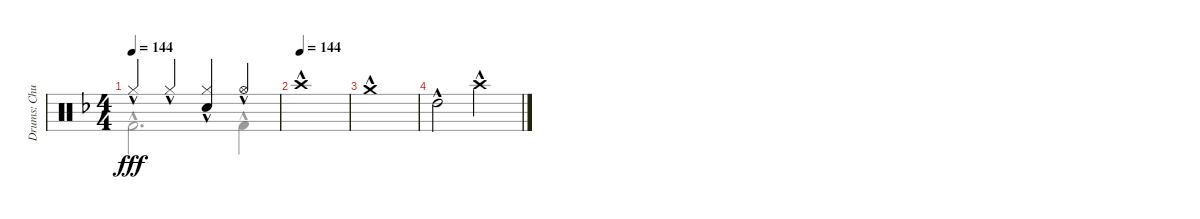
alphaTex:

\track ("Drums: Chuck" "Drums: Chu") {instrument percussion}
\staff {score}
\articulation defaults
\voice
\ts (4 4)
\tempo 144
\clef neutral
\ks f "Hi-Hat (closed)"{hac}.4{dy fff} "Hi-Hat (closed)"{hac}.4
("Hi-Hat (closed)"{hac} "Snare (hit) 2"{hac}).4 "Hi-Hat (open)"{hac}.4 |
\tempo (144)
"Crash high (hit)"{hac}.1 |
"Crash medium (hit)"{hac}.1 |
"High Tom (hit)"{hac}.2 "Crash high (hit)"{hac}.2 |
|
|
|
|
\voice
\clef neutral
\ottava regular
\simile none
\ks f "Kick (hit) 2"{hac}.2{d dy fff} "Kick (hit) 2"{hac}.4
|
|
|
|
|
|
|
|
